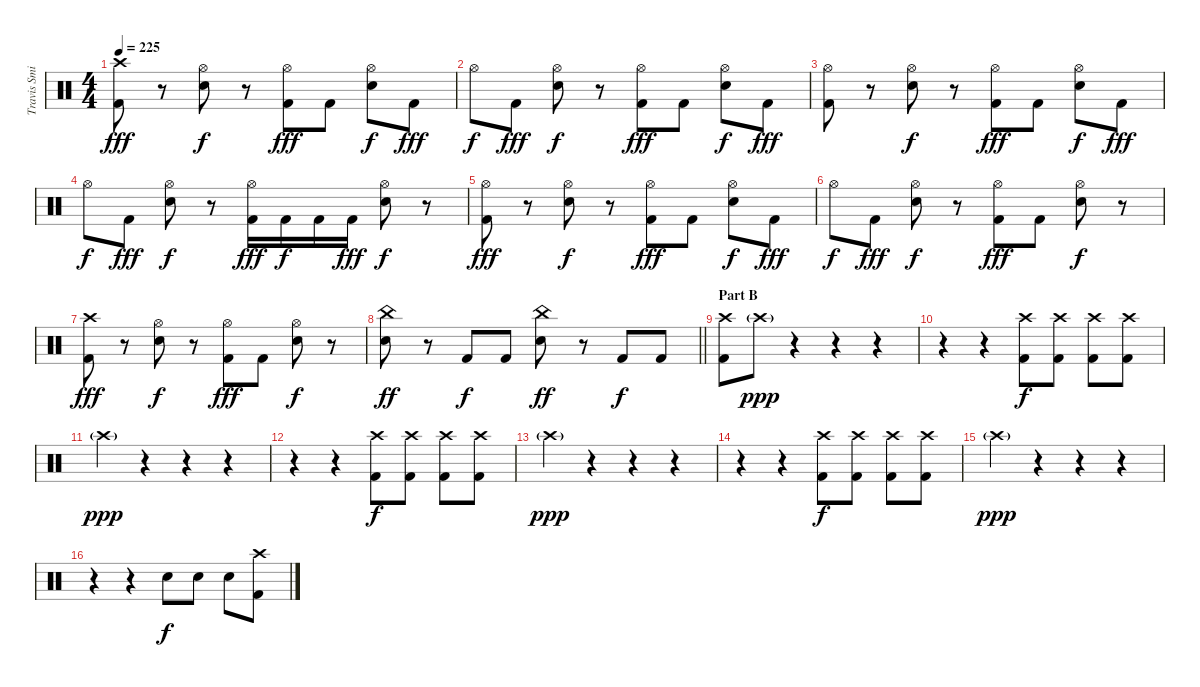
\track ("Travis Smith" "Travis Smi") {instrument percussion}
\staff {score}
\articulation defaults
\ts (4 4)
\tempo 225
\clef neutral
\ks c
("Crash high (hit)" "Kick (hit) 2").8{dy fff} r.8 ("Hi-Hat (open)" "Electric Snare (hit)").8{dy f} r.8 ("Hi-Hat (open)" "Kick (hit) 2").8{dy fff} "Kick (hit) 2".8 ("Hi-Hat (open)" "Electric Snare (hit)").8{dy f} "Kick (hit) 2".8{dy fff} |
"Hi-Hat (open)".8{dy f} "Kick (hit) 2".8{dy fff} ("Hi-Hat (open)" "Electric Snare (hit)").8{dy f} r.8 ("Hi-Hat (open)" "Kick (hit) 2").8{dy fff} "Kick (hit) 2".8 ("Hi-Hat (open)" "Electric Snare (hit)").8{dy f} "Kick (hit) 2".8{dy fff} |
("Hi-Hat (open)" "Kick (hit) 2").8 r.8 ("Hi-Hat (open)" "Electric Snare (hit)").8{dy f} r.8 ("Hi-Hat (open)" "Kick (hit) 2").8{dy fff} "Kick (hit) 2".8 ("Hi-Hat (open)" "Electric Snare (hit)").8{dy f} "Kick (hit) 2".8{dy fff} |
"Hi-Hat (open)".8{dy f} "Kick (hit) 2".8{dy fff} ("Hi-Hat (open)" "Electric Snare (hit)").8{dy f} r.8 ("Hi-Hat (open)" "Kick (hit) 2").16{dy fff} "Kick (hit) 2".16{dy f} "Kick (hit) 2".16 "Kick (hit) 2".16{dy fff} ("Hi-Hat (open)" "Electric Snare (hit)").8{dy f} r.8 |
("Hi-Hat (open)" "Kick (hit) 2").8{dy fff} r.8 ("Hi-Hat (open)" "Electric Snare (hit)").8{dy f} r.8 ("Hi-Hat (open)" "Kick (hit) 2").8{dy fff} "Kick (hit) 2".8 ("Hi-Hat (open)" "Electric Snare (hit)").8{dy f} "Kick (hit) 2".8{dy fff} |
"Hi-Hat (open)".8{dy f} "Kick (hit) 2".8{dy fff} ("Hi-Hat (open)" "Electric Snare (hit)").8{dy f} r.8 ("Hi-Hat (open)" "Kick (hit) 2").8{dy fff} "Kick (hit) 2".8 ("Hi-Hat (open)" "Electric Snare (hit)").8{dy f} r.8 |
("Crash high (hit)" "Kick (hit) 2").8{dy fff} r.8 ("Hi-Hat (open)" "Electric Snare (hit)").8{dy f} r.8 ("Hi-Hat (open)" "Kick (hit) 2").8{dy fff} "Kick (hit) 2".8 ("Hi-Hat (open)" "Electric Snare (hit)").8{dy f} r.8 |
\barLineRight lightlight
("China (hit)" "Electric Snare (hit)").8{dy ff} r.8 "Kick (hit) 2".8{dy f} "Kick (hit) 2".8 ("China (hit)" "Electric Snare (hit)").8{dy ff} r.8 "Kick (hit) 2".8{dy f} "Kick (hit) 2".8 |
\section ("" "Part B")
("Crash high (hit)" "Kick (hit) 2").8 "Crash high (hit)"{g}.8{dy ppp} r.4 r.4 r.4 |
r.4 r.4 ("Crash high (hit)" "Kick (hit) 2").8{dy f} ("Crash high (hit)" "Kick (hit) 2").8 ("Crash high (hit)" "Kick (hit) 2").8 ("Crash high (hit)" "Kick (hit) 2").8 |
"Crash high (hit)"{g}.4{dy ppp} r.4 r.4 r.4 |
r.4 r.4 ("Crash high (hit)" "Kick (hit) 2").8{dy f} ("Crash high (hit)" "Kick (hit) 2").8 ("Crash high (hit)" "Kick (hit) 2").8 ("Crash high (hit)" "Kick (hit) 2").8 |
"Crash high (hit)"{g}.4{dy ppp} r.4 r.4 r.4 |
r.4 r.4 ("Crash high (hit)" "Kick (hit) 2").8{dy f} ("Crash high (hit)" "Kick (hit) 2").8 ("Crash high (hit)" "Kick (hit) 2").8 ("Crash high (hit)" "Kick (hit) 2").8 |
"Crash high (hit)"{g}.4{dy ppp} r.4 r.4 r.4 |
r.4 r.4 "Electric Snare (hit)".8{dy f} "Electric Snare (hit)".8 "Electric Snare (hit)".8 ("Crash high (hit)" "Kick (hit) 2").8
